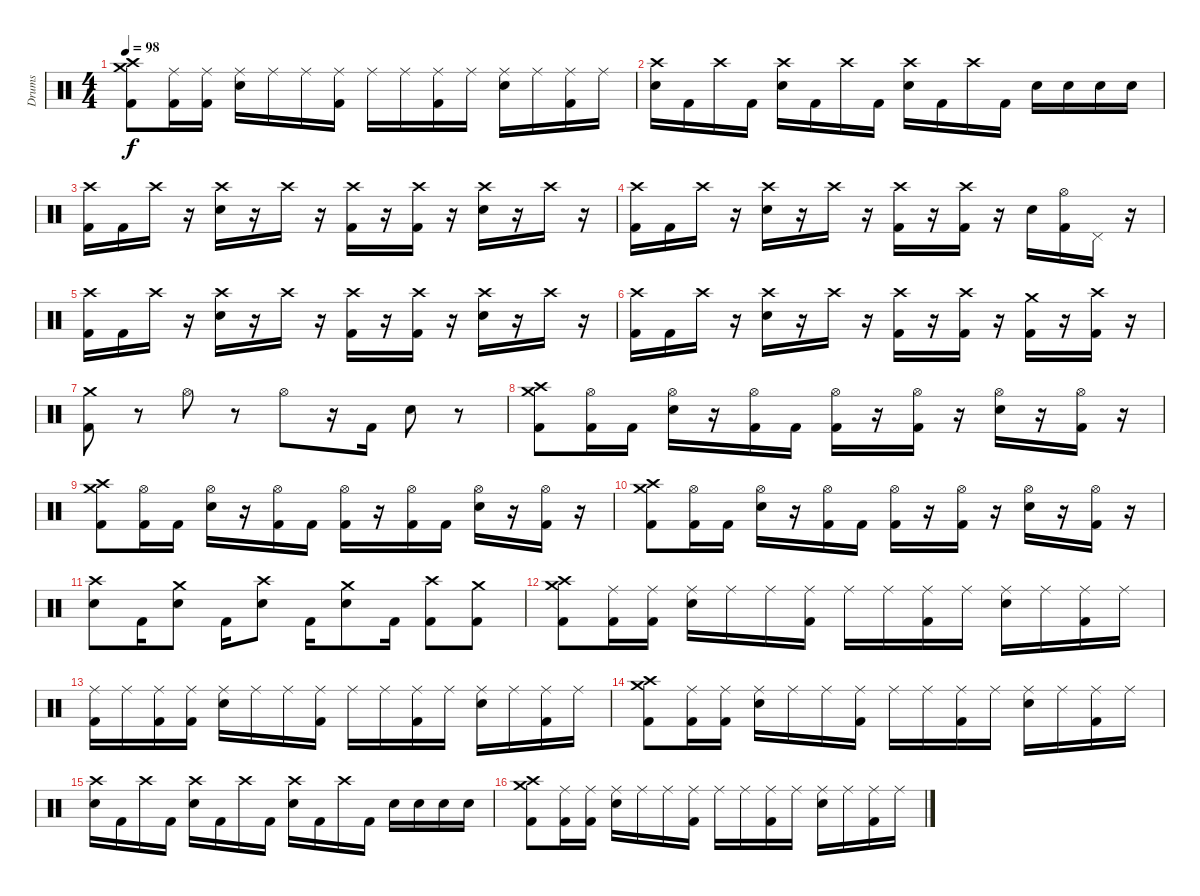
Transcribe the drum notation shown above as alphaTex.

\track ("Drums" "Drums") {instrument percussion}
\staff {score}
\articulation defaults
\ts (4 4)
\tempo 98
\clef neutral
\ks c
("Crash high (hit)" "Crash medium (hit)" "Kick (hit) 2").8{dy f} ("Ride (middle)" "Kick (hit) 2").16 ("Ride (middle)" "Kick (hit) 2").16 ("Ride (middle)" "Electric Snare (hit)").16 "Ride (middle)".16 "Ride (middle)".16 ("Ride (middle)" "Kick (hit) 2").16 "Ride (middle)".16 "Ride (middle)".16 ("Ride (middle)" "Kick (hit) 2").16 "Ride (middle)".16 ("Ride (middle)" "Electric Snare (hit)").16 "Ride (middle)".16 ("Ride (middle)" "Kick (hit) 2").16 "Ride (middle)".16 |
("Crash high (hit)" "Electric Snare (hit)").16 "Kick (hit) 2".16 "Crash high (hit)".16 "Kick (hit) 2".16 ("Crash high (hit)" "Electric Snare (hit)").16 "Kick (hit) 2".16 "Crash high (hit)".16 "Kick (hit) 2".16 ("Crash high (hit)" "Electric Snare (hit)").16 "Kick (hit) 2".16 "Crash high (hit)".16 "Kick (hit) 2".16 "Electric Snare (hit)".16 "Electric Snare (hit)".16 "Electric Snare (hit)".16 "Electric Snare (hit)".16 |
("Crash high (hit)" "Kick (hit) 2").16 "Kick (hit) 2".16 "Crash high (hit)".16 r.16 ("Crash high (hit)" "Electric Snare (hit)").16 r.16 "Crash high (hit)".16 r.16 ("Crash high (hit)" "Kick (hit) 2").16 r.16 ("Crash high (hit)" "Kick (hit) 2").16 r.16 ("Crash high (hit)" "Electric Snare (hit)").16 r.16 "Crash high (hit)".16 r.16 |
("Crash high (hit)" "Kick (hit) 2").16 "Kick (hit) 2".16 "Crash high (hit)".16 r.16 ("Crash high (hit)" "Electric Snare (hit)").16 r.16 "Crash high (hit)".16 r.16 ("Crash high (hit)" "Kick (hit) 2").16 r.16 ("Crash high (hit)" "Kick (hit) 2").16 r.16 "Electric Snare (hit)".16 ("Hi-Hat (open)" "Kick (hit) 2").16 "Pedal Hi-Hat (hit)".16 r.16 |
("Crash high (hit)" "Kick (hit) 2").16 "Kick (hit) 2".16 "Crash high (hit)".16 r.16 ("Crash high (hit)" "Electric Snare (hit)").16 r.16 "Crash high (hit)".16 r.16 ("Crash high (hit)" "Kick (hit) 2").16 r.16 ("Crash high (hit)" "Kick (hit) 2").16 r.16 ("Crash high (hit)" "Electric Snare (hit)").16 r.16 "Crash high (hit)".16 r.16 |
("Crash high (hit)" "Kick (hit) 2").16 "Kick (hit) 2".16 "Crash high (hit)".16 r.16 ("Crash high (hit)" "Electric Snare (hit)").16 r.16 "Crash high (hit)".16 r.16 ("Crash high (hit)" "Kick (hit) 2").16 r.16 ("Crash high (hit)" "Kick (hit) 2").16 r.16 ("Crash medium (hit)" "Kick (hit) 2").16 r.16 ("Crash high (hit)" "Kick (hit) 2").16 r.16 |
("Crash medium (hit)" "Kick (hit) 2").8 r.8 "Hi-Hat (open)".8 r.8 "Hi-Hat (open)".8 r.16 "Kick (hit) 2".16 "Electric Snare (hit)".8 r.8 |
("Crash high (hit)" "Crash medium (hit)" "Kick (hit) 2").8 ("Hi-Hat (open)" "Kick (hit) 2").16 "Kick (hit) 2".16 ("Hi-Hat (open)" "Electric Snare (hit)").16 r.16 ("Hi-Hat (open)" "Kick (hit) 2").16 "Kick (hit) 2".16 ("Hi-Hat (open)" "Kick (hit) 2").16 r.16 ("Hi-Hat (open)" "Kick (hit) 2").16 r.16 ("Hi-Hat (open)" "Electric Snare (hit)").16 r.16 ("Hi-Hat (open)" "Kick (hit) 2").16 r.16 |
("Crash high (hit)" "Crash medium (hit)" "Kick (hit) 2").8 ("Hi-Hat (open)" "Kick (hit) 2").16 "Kick (hit) 2".16 ("Hi-Hat (open)" "Electric Snare (hit)").16 r.16 ("Hi-Hat (open)" "Kick (hit) 2").16 "Kick (hit) 2".16 ("Hi-Hat (open)" "Kick (hit) 2").16 r.16 ("Hi-Hat (open)" "Kick (hit) 2").16 "Kick (hit) 2".16 ("Hi-Hat (open)" "Electric Snare (hit)").16 r.16 ("Hi-Hat (open)" "Kick (hit) 2").16 r.16 |
("Crash high (hit)" "Crash medium (hit)" "Kick (hit) 2").8 ("Hi-Hat (open)" "Kick (hit) 2").16 "Kick (hit) 2".16 ("Hi-Hat (open)" "Electric Snare (hit)").16 r.16 ("Hi-Hat (open)" "Kick (hit) 2").16 "Kick (hit) 2".16 ("Hi-Hat (open)" "Kick (hit) 2").16 r.16 ("Hi-Hat (open)" "Kick (hit) 2").16 r.16 ("Hi-Hat (open)" "Electric Snare (hit)").16 r.16 ("Hi-Hat (open)" "Kick (hit) 2").16 r.16 |
("Crash high (hit)" "Electric Snare (hit)").8 "Kick (hit) 2".16 ("Crash medium (hit)" "Electric Snare (hit)").8 "Kick (hit) 2".16 ("Crash high (hit)" "Electric Snare (hit)").8 "Kick (hit) 2".16 ("Crash medium (hit)" "Electric Snare (hit)").8 "Kick (hit) 2".16 ("Crash high (hit)" "Kick (hit) 2").8 ("Crash medium (hit)" "Kick (hit) 2").8 |
("Crash high (hit)" "Crash medium (hit)" "Kick (hit) 2").8 ("Ride (middle)" "Kick (hit) 2").16 ("Ride (middle)" "Kick (hit) 2").16 ("Ride (middle)" "Electric Snare (hit)").16 "Ride (middle)".16 "Ride (middle)".16 ("Ride (middle)" "Kick (hit) 2").16 "Ride (middle)".16 "Ride (middle)".16 ("Ride (middle)" "Kick (hit) 2").16 "Ride (middle)".16 ("Ride (middle)" "Electric Snare (hit)").16 "Ride (middle)".16 ("Ride (middle)" "Kick (hit) 2").16 "Ride (middle)".16 |
("Ride (middle)" "Kick (hit) 2").16 "Ride (middle)".16 ("Ride (middle)" "Kick (hit) 2").16 ("Ride (middle)" "Kick (hit) 2").16 ("Ride (middle)" "Electric Snare (hit)").16 "Ride (middle)".16 "Ride (middle)".16 ("Ride (middle)" "Kick (hit) 2").16 "Ride (middle)".16 "Ride (middle)".16 ("Ride (middle)" "Kick (hit) 2").16 "Ride (middle)".16 ("Ride (middle)" "Electric Snare (hit)").16 "Ride (middle)".16 ("Ride (middle)" "Kick (hit) 2").16 "Ride (middle)".16 |
("Crash high (hit)" "Crash medium (hit)" "Kick (hit) 2").8 ("Ride (middle)" "Kick (hit) 2").16 ("Ride (middle)" "Kick (hit) 2").16 ("Ride (middle)" "Electric Snare (hit)").16 "Ride (middle)".16 "Ride (middle)".16 ("Ride (middle)" "Kick (hit) 2").16 "Ride (middle)".16 "Ride (middle)".16 ("Ride (middle)" "Kick (hit) 2").16 "Ride (middle)".16 ("Ride (middle)" "Electric Snare (hit)").16 "Ride (middle)".16 ("Ride (middle)" "Kick (hit) 2").16 "Ride (middle)".16 |
("Crash high (hit)" "Electric Snare (hit)").16 "Kick (hit) 2".16 "Crash high (hit)".16 "Kick (hit) 2".16 ("Crash high (hit)" "Electric Snare (hit)").16 "Kick (hit) 2".16 "Crash high (hit)".16 "Kick (hit) 2".16 ("Crash high (hit)" "Electric Snare (hit)").16 "Kick (hit) 2".16 "Crash high (hit)".16 "Kick (hit) 2".16 "Electric Snare (hit)".16 "Electric Snare (hit)".16 "Electric Snare (hit)".16 "Electric Snare (hit)".16 |
("Crash high (hit)" "Crash medium (hit)" "Kick (hit) 2").8 ("Ride (middle)" "Kick (hit) 2").16 ("Ride (middle)" "Kick (hit) 2").16 ("Ride (middle)" "Electric Snare (hit)").16 "Ride (middle)".16 "Ride (middle)".16 ("Ride (middle)" "Kick (hit) 2").16 "Ride (middle)".16 "Ride (middle)".16 ("Ride (middle)" "Kick (hit) 2").16 "Ride (middle)".16 ("Ride (middle)" "Electric Snare (hit)").16 "Ride (middle)".16 ("Ride (middle)" "Kick (hit) 2").16 "Ride (middle)".16
